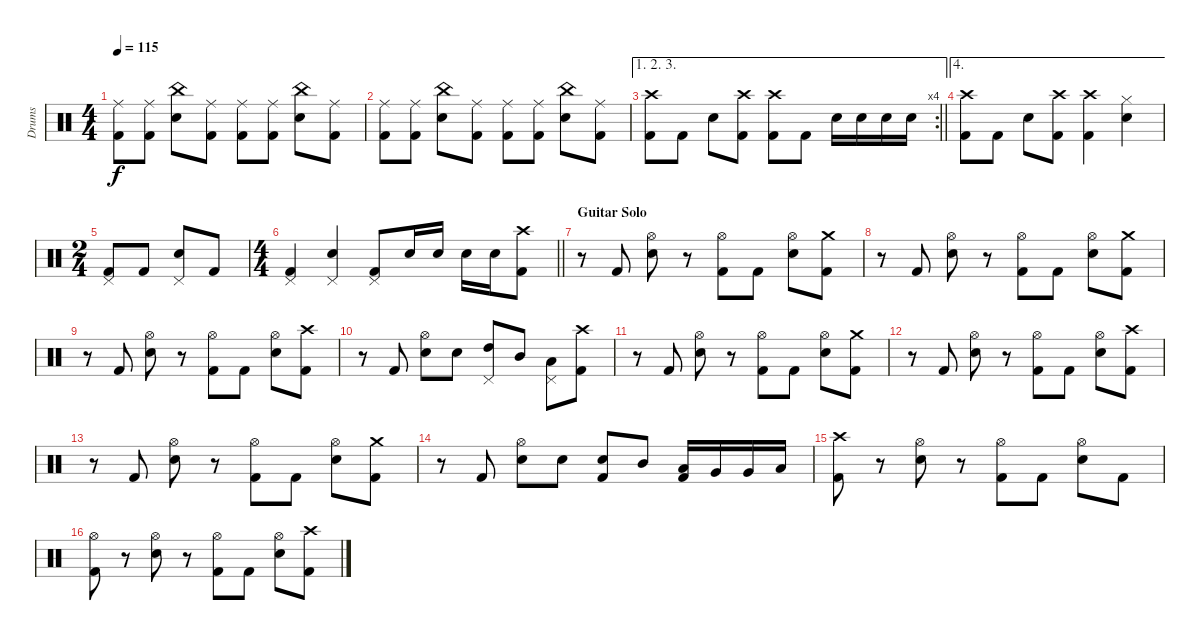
\track ("Drums" "Drums") {instrument percussion}
\staff {score}
\articulation defaults
\ts (4 4)
\tempo 115
\clef neutral
\ks c
("Ride (middle)" "Kick (hit) 2").8{dy f} ("Ride (middle)" "Kick (hit) 2").8 ("China (hit)" "Snare (hit) 2").8 ("Ride (middle)" "Kick (hit) 2").8 ("Ride (middle)" "Kick (hit) 2").8 ("Ride (middle)" "Kick (hit) 2").8 ("China (hit)" "Snare (hit) 2").8 ("Ride (middle)" "Kick (hit) 2").8 |
("Ride (middle)" "Kick (hit) 2").8 ("Ride (middle)" "Kick (hit) 2").8 ("China (hit)" "Snare (hit) 2").8 ("Ride (middle)" "Kick (hit) 2").8 ("Ride (middle)" "Kick (hit) 2").8 ("Ride (middle)" "Kick (hit) 2").8 ("China (hit)" "Snare (hit) 2").8 ("Ride (middle)" "Kick (hit) 2").8 |
\ae (1 2 3)
\rc 4
\barLineRight lightlight
("Crash high (hit)" "Kick (hit) 2").8 "Kick (hit) 2".8 "Snare (hit) 2".8 ("Crash high (hit)" "Kick (hit) 2").8 ("Crash high (hit)" "Kick (hit) 2").8 "Kick (hit) 2".8 "Snare (hit) 2".16 "Snare (hit) 2".16 "Snare (hit) 2".16 "Snare (hit) 2".16 |
\ae 4
("Crash high (hit)" "Kick (hit) 2").8 "Kick (hit) 2".8 "Snare (hit) 2".8 ("Crash high (hit)" "Kick (hit) 2").8 ("Crash high (hit)" "Kick (hit) 2").4 ("Hi-Hat (closed)" "Snare (hit) 2").4 |
\ts (2 4)
("Pedal Hi-Hat (hit)" "Kick (hit) 2").8 "Kick (hit) 2".8 ("Pedal Hi-Hat (hit)" "Snare (hit) 2").8 "Kick (hit) 2".8 |
\ts (4 4)
\barLineRight lightlight
("Pedal Hi-Hat (hit)" "Kick (hit) 2").4 ("Pedal Hi-Hat (hit)" "Snare (hit) 2").4 ("Pedal Hi-Hat (hit)" "Kick (hit) 2").8 "Snare (hit) 2".16 "Snare (hit) 2".16 "Snare (hit) 2".16 "Snare (hit) 2".16 ("Crash high (hit)" "Kick (hit) 2").8 |
\section ("" "Guitar Solo")
r.8 "Kick (hit) 2".8 ("Hi-Hat (open)" "Snare (hit) 2").8 r.8 ("Hi-Hat (open)" "Kick (hit) 2").8 "Kick (hit) 2".8 ("Hi-Hat (open)" "Snare (hit) 2").8 ("Crash medium (hit)" "Kick (hit) 2").8 |
r.8 "Kick (hit) 2".8 ("Hi-Hat (open)" "Snare (hit) 2").8 r.8 ("Hi-Hat (open)" "Kick (hit) 2").8 "Kick (hit) 2".8 ("Hi-Hat (open)" "Snare (hit) 2").8 ("Crash medium (hit)" "Kick (hit) 2").8 |
r.8 "Kick (hit) 2".8 ("Hi-Hat (open)" "Snare (hit) 2").8 r.8 ("Hi-Hat (open)" "Kick (hit) 2").8 "Kick (hit) 2".8 ("Hi-Hat (open)" "Snare (hit) 2").8 ("Crash high (hit)" "Kick (hit) 2").8 |
r.8 "Kick (hit) 2".8 ("Hi-Hat (open)" "Snare (hit) 2").8 "Snare (hit) 2".8 ("High Tom (hit)" "Pedal Hi-Hat (hit)").8 "Mid Tom (hit)".8 ("Low Tom (hit)" "Pedal Hi-Hat (hit)").8 ("Crash high (hit)" "Kick (hit) 2").8 |
r.8 "Kick (hit) 2".8 ("Hi-Hat (open)" "Snare (hit) 2").8 r.8 ("Hi-Hat (open)" "Kick (hit) 2").8 "Kick (hit) 2".8 ("Hi-Hat (open)" "Snare (hit) 2").8 ("Crash medium (hit)" "Kick (hit) 2").8 |
r.8 "Kick (hit) 2".8 ("Hi-Hat (open)" "Snare (hit) 2").8 r.8 ("Hi-Hat (open)" "Kick (hit) 2").8 "Kick (hit) 2".8 ("Hi-Hat (open)" "Snare (hit) 2").8 ("Crash high (hit)" "Kick (hit) 2").8 |
r.8 "Kick (hit) 2".8 ("Hi-Hat (open)" "Snare (hit) 2").8 r.8 ("Hi-Hat (open)" "Kick (hit) 2").8 "Kick (hit) 2".8 ("Hi-Hat (open)" "Snare (hit) 2").8 ("Crash medium (hit)" "Kick (hit) 2").8 |
r.8 "Kick (hit) 2".8 ("Hi-Hat (open)" "Snare (hit) 2").8 "Snare (hit) 2".8 ("Snare (hit) 2" "Kick (hit) 2").8 "Mid Tom (hit)".8 ("Low Tom (hit)" "Kick (hit) 2").16 "Very Low Tom (hit)".16 "Very Low Tom (hit)".16 "Low Floor Tom (hit)".16 |
("Crash high (hit)" "Kick (hit) 2").8 r.8 ("Hi-Hat (open)" "Snare (hit) 2").8 r.8 ("Hi-Hat (open)" "Kick (hit) 2").8 "Kick (hit) 2".8 ("Hi-Hat (open)" "Snare (hit) 2").8 "Kick (hit) 2".8 |
("Hi-Hat (open)" "Kick (hit) 2").8 r.8 ("Hi-Hat (open)" "Snare (hit) 2").8 r.8 ("Hi-Hat (open)" "Kick (hit) 2").8 "Kick (hit) 2".8 ("Hi-Hat (open)" "Snare (hit) 2").8 ("Crash high (hit)" "Kick (hit) 2").8
